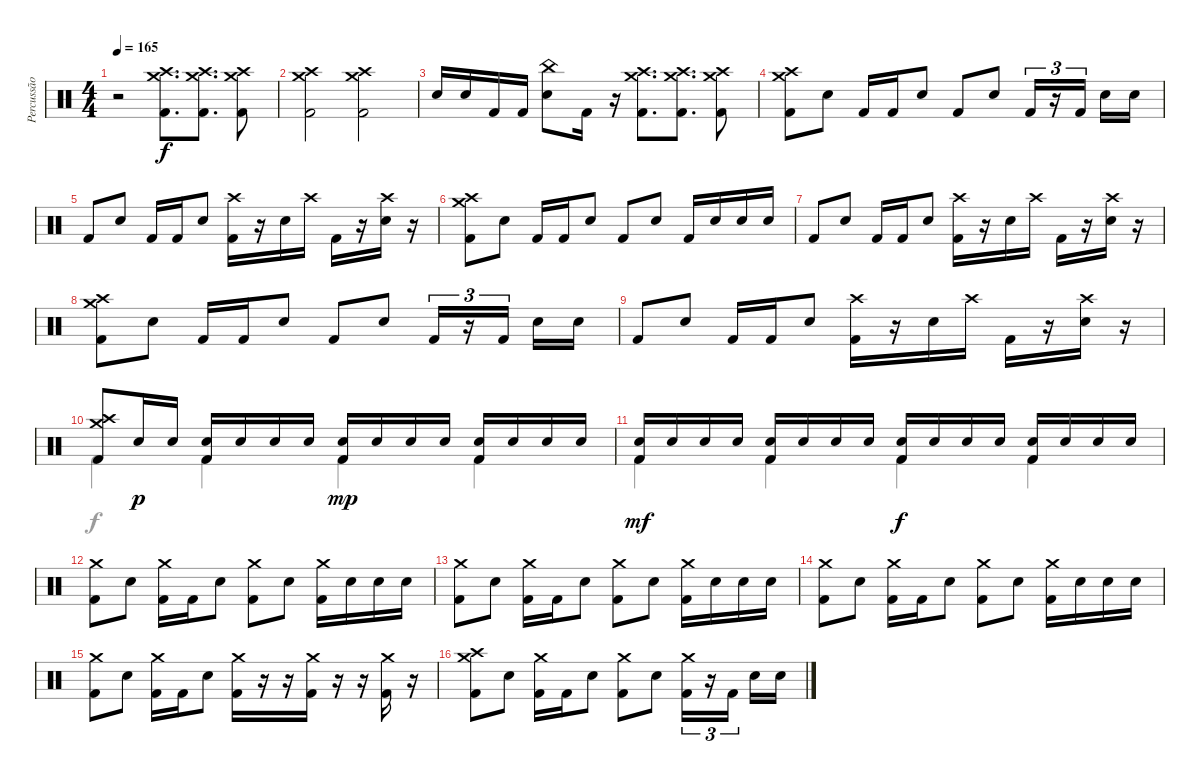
\track ("Percussão" "Percussão") {instrument percussion}
\staff {score}
\articulation defaults
\voice
\ts (4 4)
\tempo 165
\clef neutral
\ks c
r.2{dy f} ("Crash high (hit)" "Crash medium (hit)" "Kick (hit) 2").8{d} ("Crash high (hit)" "Crash medium (hit)" "Kick (hit) 2").8{d} ("Crash high (hit)" "Crash medium (hit)" "Kick (hit) 2").8 |
("Crash high (hit)" "Crash medium (hit)" "Kick (hit) 2").2 ("Crash high (hit)" "Crash medium (hit)" "Kick (hit) 2").2 |
"Electric Snare (hit)".16 "Electric Snare (hit)".16 "Kick (hit) 2".16 "Kick (hit) 2".16 ("China (hit)" "Electric Snare (hit)").8 "Kick (hit) 2".16 r.16 ("Crash high (hit)" "Crash medium (hit)" "Kick (hit) 2").8{d} ("Crash high (hit)" "Crash medium (hit)" "Kick (hit) 2").8{d} ("Crash high (hit)" "Crash medium (hit)" "Kick (hit) 2").8 |
("Crash high (hit)" "Crash medium (hit)" "Kick (hit) 2").8 "Electric Snare (hit)".8 "Kick (hit) 2".16 "Kick (hit) 2".16 "Electric Snare (hit)".8 "Kick (hit) 2".8 "Electric Snare (hit)".8 "Kick (hit) 2".16{tu (3 2)} r.16{tu (3 2)} "Kick (hit) 2".16{tu (3 2) beam splitsecondary} "Electric Snare (hit)".16 "Electric Snare (hit)".16 |
"Kick (hit) 2".8 "Electric Snare (hit)".8 "Kick (hit) 2".16 "Kick (hit) 2".16 "Electric Snare (hit)".8 ("Crash high (hit)" "Kick (hit) 2").16 r.16 "Electric Snare (hit)".16 "Crash high (hit)".16 "Kick (hit) 2".16 r.16 ("Crash high (hit)" "Electric Snare (hit)").16 r.16 |
("Crash high (hit)" "Crash medium (hit)" "Kick (hit) 2").8 "Electric Snare (hit)".8 "Kick (hit) 2".16 "Kick (hit) 2".16 "Electric Snare (hit)".8 "Kick (hit) 2".8 "Electric Snare (hit)".8 "Kick (hit) 2".16 "Electric Snare (hit)".16 "Electric Snare (hit)".16 "Electric Snare (hit)".16 |
"Kick (hit) 2".8 "Electric Snare (hit)".8 "Kick (hit) 2".16 "Kick (hit) 2".16 "Electric Snare (hit)".8 ("Crash high (hit)" "Kick (hit) 2").16 r.16 "Electric Snare (hit)".16 "Crash high (hit)".16 "Kick (hit) 2".16 r.16 ("Crash high (hit)" "Electric Snare (hit)").16 r.16 |
("Crash high (hit)" "Crash medium (hit)" "Kick (hit) 2").8 "Electric Snare (hit)".8 "Kick (hit) 2".16 "Kick (hit) 2".16 "Electric Snare (hit)".8 "Kick (hit) 2".8 "Electric Snare (hit)".8 "Kick (hit) 2".16{tu (3 2)} r.16{tu (3 2)} "Kick (hit) 2".16{tu (3 2) beam splitsecondary} "Electric Snare (hit)".16 "Electric Snare (hit)".16 |
"Kick (hit) 2".8 "Electric Snare (hit)".8 "Kick (hit) 2".16 "Kick (hit) 2".16 "Electric Snare (hit)".8 ("Crash high (hit)" "Kick (hit) 2").16 r.16 "Electric Snare (hit)".16 "Crash high (hit)".16 "Kick (hit) 2".16 r.16 ("Crash high (hit)" "Electric Snare (hit)").16 r.16 |
("Crash high (hit)" "Crash medium (hit)" "Kick (hit) 2").8 "Electric Snare (hit)".16{dy p} "Electric Snare (hit)".16 ("Electric Snare (hit)" "Kick (hit) 2").16 "Electric Snare (hit)".16 "Electric Snare (hit)".16 "Electric Snare (hit)".16 ("Electric Snare (hit)" "Kick (hit) 2").16{dy mp} "Electric Snare (hit)".16 "Electric Snare (hit)".16 "Electric Snare (hit)".16 ("Electric Snare (hit)" "Kick (hit) 2").16 "Electric Snare (hit)".16 "Electric Snare (hit)".16 "Electric Snare (hit)".16 |
("Electric Snare (hit)" "Kick (hit) 2").16{dy mf} "Electric Snare (hit)".16 "Electric Snare (hit)".16 "Electric Snare (hit)".16 ("Electric Snare (hit)" "Kick (hit) 2").16 "Electric Snare (hit)".16 "Electric Snare (hit)".16 "Electric Snare (hit)".16 ("Electric Snare (hit)" "Kick (hit) 2").16{dy f} "Electric Snare (hit)".16 "Electric Snare (hit)".16 "Electric Snare (hit)".16 ("Electric Snare (hit)" "Kick (hit) 2").16 "Electric Snare (hit)".16 "Electric Snare (hit)".16 "Electric Snare (hit)".16 |
("Crash medium (hit)" "Kick (hit) 2").8 "Electric Snare (hit)".8 ("Crash medium (hit)" "Kick (hit) 2").16 "Kick (hit) 2".16 "Electric Snare (hit)".8 ("Crash medium (hit)" "Kick (hit) 2").8 "Electric Snare (hit)".8 ("Crash medium (hit)" "Kick (hit) 2").16 "Electric Snare (hit)".16 "Electric Snare (hit)".16 "Electric Snare (hit)".16 |
("Crash medium (hit)" "Kick (hit) 2").8 "Electric Snare (hit)".8 ("Crash medium (hit)" "Kick (hit) 2").16 "Kick (hit) 2".16 "Electric Snare (hit)".8 ("Crash medium (hit)" "Kick (hit) 2").8 "Electric Snare (hit)".8 ("Crash medium (hit)" "Kick (hit) 2").16 "Electric Snare (hit)".16 "Electric Snare (hit)".16 "Electric Snare (hit)".16 |
("Crash medium (hit)" "Kick (hit) 2").8 "Electric Snare (hit)".8 ("Crash medium (hit)" "Kick (hit) 2").16 "Kick (hit) 2".16 "Electric Snare (hit)".8 ("Crash medium (hit)" "Kick (hit) 2").8 "Electric Snare (hit)".8 ("Crash medium (hit)" "Kick (hit) 2").16 "Electric Snare (hit)".16 "Electric Snare (hit)".16 "Electric Snare (hit)".16 |
("Crash medium (hit)" "Kick (hit) 2").8 "Electric Snare (hit)".8 ("Crash medium (hit)" "Kick (hit) 2").16 "Kick (hit) 2".16 "Electric Snare (hit)".8 ("Crash medium (hit)" "Kick (hit) 2").16 r.16 r.16 ("Crash medium (hit)" "Kick (hit) 2").16 r.16 r.16 ("Crash medium (hit)" "Kick (hit) 2").16 r.16 |
("Crash high (hit)" "Crash medium (hit)" "Kick (hit) 2").8 "Electric Snare (hit)".8 ("Crash medium (hit)" "Kick (hit) 2").16 "Kick (hit) 2".16 "Electric Snare (hit)".8 ("Crash medium (hit)" "Kick (hit) 2").8 "Electric Snare (hit)".8 ("Crash medium (hit)" "Kick (hit) 2").16{tu (3 2)} r.16{tu (3 2)} "Kick (hit) 2".16{tu (3 2) beam splitsecondary} "Electric Snare (hit)".16 "Electric Snare (hit)".16
\voice
\clef neutral
\ottava regular
\simile none
\ks c
|
|
|
|
|
|
|
|
|
"Kick (hit) 2".4 "Kick (hit) 2".4 "Kick (hit) 2".4 "Kick (hit) 2".4 |
"Kick (hit) 2".4 "Kick (hit) 2".4 "Kick (hit) 2".4 "Kick (hit) 2".4 |
|
|
|
|
